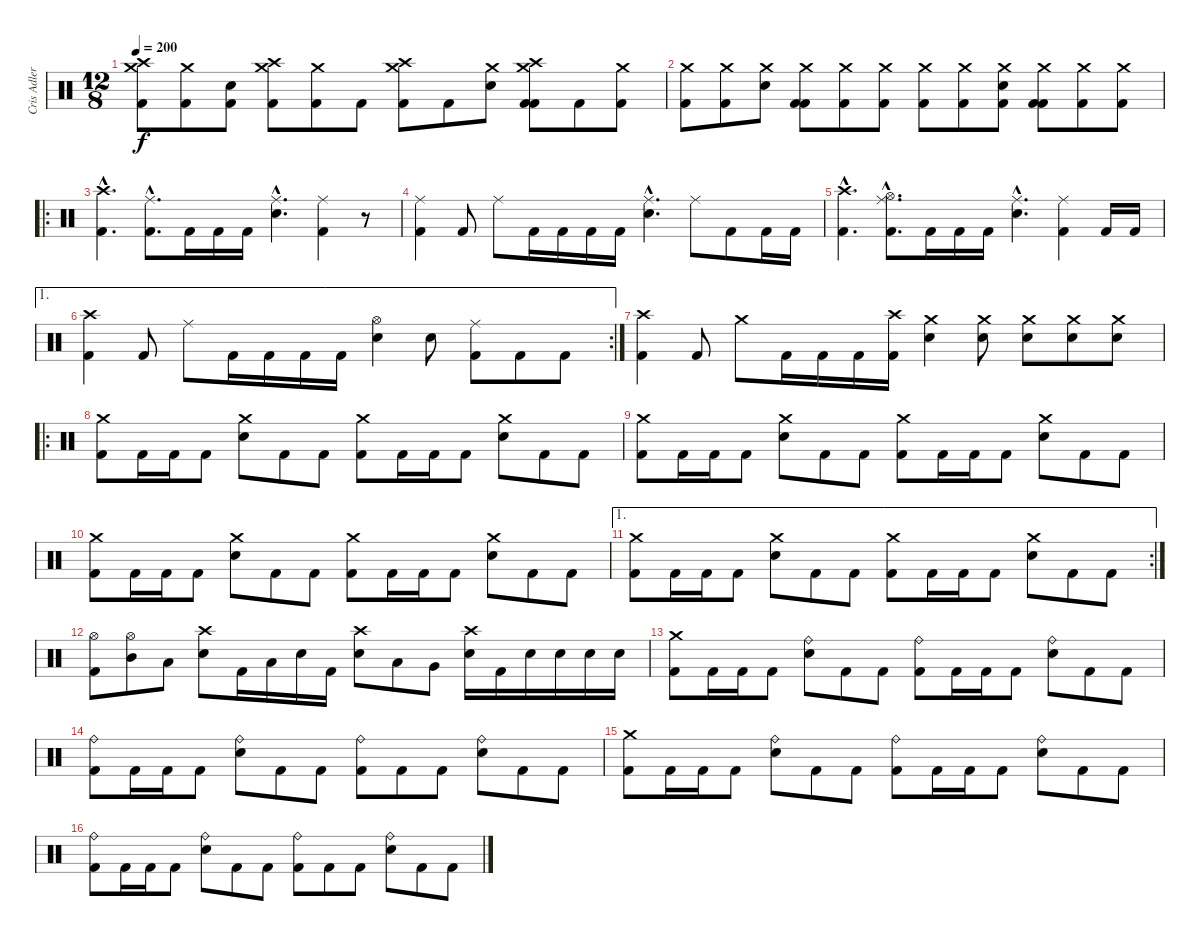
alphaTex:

\track ("Cris Adler" "Cris Adler") {instrument percussion}
\staff {score}
\articulation defaults
\ts (12 8)
\tempo 200
\clef neutral
\ks c
("Crash high (hit)" "Crash medium (hit)" "Kick (hit) 2").8{dy f} ("Crash medium (hit)" "Kick (hit) 2").8 ("Kick (hit) 2" "Electric Snare (hit)").8 ("Crash high (hit)" "Crash medium (hit)" "Kick (hit) 2").8 ("Crash medium (hit)" "Kick (hit) 2").8 "Kick (hit) 2".8 ("Crash high (hit)" "Crash medium (hit)" "Kick (hit) 2").8 "Kick (hit) 2".8 ("Crash medium (hit)" "Electric Snare (hit)").8 ("Crash high (hit)" "Crash medium (hit)" "Kick (hit) 2" "Kick (hit) 2").8 "Kick (hit) 2".8 ("Crash medium (hit)" "Kick (hit) 2").8 |
("Crash medium (hit)" "Kick (hit) 2").8 ("Crash medium (hit)" "Kick (hit) 2").8 ("Crash medium (hit)" "Electric Snare (hit)").8 ("Crash medium (hit)" "Kick (hit) 2" "Kick (hit) 2").8 ("Crash medium (hit)" "Kick (hit) 2").8 ("Crash medium (hit)" "Kick (hit) 2").8 ("Crash medium (hit)" "Kick (hit) 2").8 ("Crash medium (hit)" "Kick (hit) 2").8 ("Crash medium (hit)" "Kick (hit) 2" "Electric Snare (hit)").8 ("Crash medium (hit)" "Kick (hit) 2" "Kick (hit) 2").8 ("Crash medium (hit)" "Kick (hit) 2").8 ("Crash medium (hit)" "Kick (hit) 2").8 |
\ro
("Crash high (hit)"{hac} "Kick (hit) 2"{hac}).4{d} ("Ride (middle)"{hac} "Kick (hit) 2"{hac}).8{d} "Kick (hit) 2".16 "Kick (hit) 2".16 "Kick (hit) 2".16 ("Ride (middle)"{hac} "Electric Snare (hit)"{hac}).4{d} ("Ride (middle)" "Kick (hit) 2").4 r.8 |
("Ride (middle)" "Kick (hit) 2").4 "Kick (hit) 2".8 "Ride (middle)".8 "Kick (hit) 2".16 "Kick (hit) 2".16 "Kick (hit) 2".16 "Kick (hit) 2".16 ("Ride (middle)"{hac} "Electric Snare (hit)"{hac}).4{d} "Ride (middle)".8 "Kick (hit) 2".8 "Kick (hit) 2".16 "Kick (hit) 2".16 |
("Crash high (hit)"{hac} "Kick (hit) 2"{hac}).4{d} ("Ride (middle)"{hac} "Hi-Hat (open)"{hac} "Kick (hit) 2"{hac}).8{d} "Kick (hit) 2".16 "Kick (hit) 2".16 "Kick (hit) 2".16 ("Ride (middle)"{hac} "Electric Snare (hit)"{hac}).4{d} ("Ride (middle)" "Kick (hit) 2").4 "Kick (hit) 2".16 "Kick (hit) 2".16 |
\ae 1
\rc 2
("Crash high (hit)" "Kick (hit) 2").4 "Kick (hit) 2".8 "Ride (middle)".8 "Kick (hit) 2".16 "Kick (hit) 2".16 "Kick (hit) 2".16 "Kick (hit) 2".16 ("Hi-Hat (open)" "Electric Snare (hit)").4 "Electric Snare (hit)".8 ("Ride (middle)" "Kick (hit) 2").8 "Kick (hit) 2".8 "Kick (hit) 2".8 |
("Crash high (hit)" "Kick (hit) 2").4 "Kick (hit) 2".8 "Crash medium (hit)".8 "Kick (hit) 2".16 "Kick (hit) 2".16 "Kick (hit) 2".16 ("Crash high (hit)" "Kick (hit) 2").16 ("Crash medium (hit)" "Electric Snare (hit)").4 ("Crash medium (hit)" "Electric Snare (hit)").8 ("Crash medium (hit)" "Electric Snare (hit)").8 ("Crash medium (hit)" "Electric Snare (hit)").8 ("Crash medium (hit)" "Electric Snare (hit)").8 |
\ro
("Crash medium (hit)" "Kick (hit) 2").8 "Kick (hit) 2".16 "Kick (hit) 2".16 "Kick (hit) 2".8 ("Crash medium (hit)" "Electric Snare (hit)").8 "Kick (hit) 2".8 "Kick (hit) 2".8 ("Crash medium (hit)" "Kick (hit) 2").8 "Kick (hit) 2".16 "Kick (hit) 2".16 "Kick (hit) 2".8 ("Crash medium (hit)" "Electric Snare (hit)").8 "Kick (hit) 2".8 "Kick (hit) 2".8 |
("Crash medium (hit)" "Kick (hit) 2").8 "Kick (hit) 2".16 "Kick (hit) 2".16 "Kick (hit) 2".8 ("Crash medium (hit)" "Electric Snare (hit)").8 "Kick (hit) 2".8 "Kick (hit) 2".8 ("Crash medium (hit)" "Kick (hit) 2").8 "Kick (hit) 2".16 "Kick (hit) 2".16 "Kick (hit) 2".8 ("Crash medium (hit)" "Electric Snare (hit)").8 "Kick (hit) 2".8 "Kick (hit) 2".8 |
("Crash medium (hit)" "Kick (hit) 2").8 "Kick (hit) 2".16 "Kick (hit) 2".16 "Kick (hit) 2".8 ("Crash medium (hit)" "Electric Snare (hit)").8 "Kick (hit) 2".8 "Kick (hit) 2".8 ("Crash medium (hit)" "Kick (hit) 2").8 "Kick (hit) 2".16 "Kick (hit) 2".16 "Kick (hit) 2".8 ("Crash medium (hit)" "Electric Snare (hit)").8 "Kick (hit) 2".8 "Kick (hit) 2".8 |
\ae 1
\rc 2
("Crash medium (hit)" "Kick (hit) 2").8 "Kick (hit) 2".16 "Kick (hit) 2".16 "Kick (hit) 2".8 ("Crash medium (hit)" "Electric Snare (hit)").8 "Kick (hit) 2".8 "Kick (hit) 2".8 ("Crash medium (hit)" "Kick (hit) 2").8 "Kick (hit) 2".16 "Kick (hit) 2".16 "Kick (hit) 2".8 ("Crash medium (hit)" "Electric Snare (hit)").8 "Kick (hit) 2".8 "Kick (hit) 2".8 |
("Hi-Hat (open)" "Kick (hit) 2").8 ("Hi-Hat (open)" "Mid Tom (hit)").8 "Low Tom (hit)".8 ("Crash high (hit)" "Electric Snare (hit)").8 "Kick (hit) 2".16 "Low Tom (hit)".16 "Electric Snare (hit)".16 "Kick (hit) 2".16 ("Crash high (hit)" "Electric Snare (hit)").8 "Low Tom (hit)".8 "Very Low Tom (hit)".8 ("Crash high (hit)" "Electric Snare (hit)").16 "Kick (hit) 2".16 "Electric Snare (hit)".16 "Electric Snare (hit)".16 "Electric Snare (hit)".16 "Electric Snare (hit)".16 |
("Crash medium (hit)" "Kick (hit) 2").8 "Kick (hit) 2".16 "Kick (hit) 2".16 "Kick (hit) 2".8 ("Ride (bell)" "Electric Snare (hit)").8 "Kick (hit) 2".8 "Kick (hit) 2".8 ("Ride (bell)" "Kick (hit) 2").8 "Kick (hit) 2".16 "Kick (hit) 2".16 "Kick (hit) 2".8 ("Ride (bell)" "Electric Snare (hit)").8 "Kick (hit) 2".8 "Kick (hit) 2".8 |
("Ride (bell)" "Kick (hit) 2").8 "Kick (hit) 2".16 "Kick (hit) 2".16 "Kick (hit) 2".8 ("Ride (bell)" "Electric Snare (hit)").8 "Kick (hit) 2".8 "Kick (hit) 2".8 ("Ride (bell)" "Kick (hit) 2").8 "Kick (hit) 2".8 "Kick (hit) 2".8 ("Ride (bell)" "Electric Snare (hit)").8 "Kick (hit) 2".8 "Kick (hit) 2".8 |
("Crash medium (hit)" "Kick (hit) 2").8 "Kick (hit) 2".16 "Kick (hit) 2".16 "Kick (hit) 2".8 ("Ride (bell)" "Electric Snare (hit)").8 "Kick (hit) 2".8 "Kick (hit) 2".8 ("Ride (bell)" "Kick (hit) 2").8 "Kick (hit) 2".16 "Kick (hit) 2".16 "Kick (hit) 2".8 ("Ride (bell)" "Electric Snare (hit)").8 "Kick (hit) 2".8 "Kick (hit) 2".8 |
("Ride (bell)" "Kick (hit) 2").8 "Kick (hit) 2".16 "Kick (hit) 2".16 "Kick (hit) 2".8 ("Ride (bell)" "Electric Snare (hit)").8 "Kick (hit) 2".8 "Kick (hit) 2".8 ("Ride (bell)" "Kick (hit) 2").8 "Kick (hit) 2".8 "Kick (hit) 2".8 ("Ride (bell)" "Electric Snare (hit)").8 "Kick (hit) 2".8 "Kick (hit) 2".8
